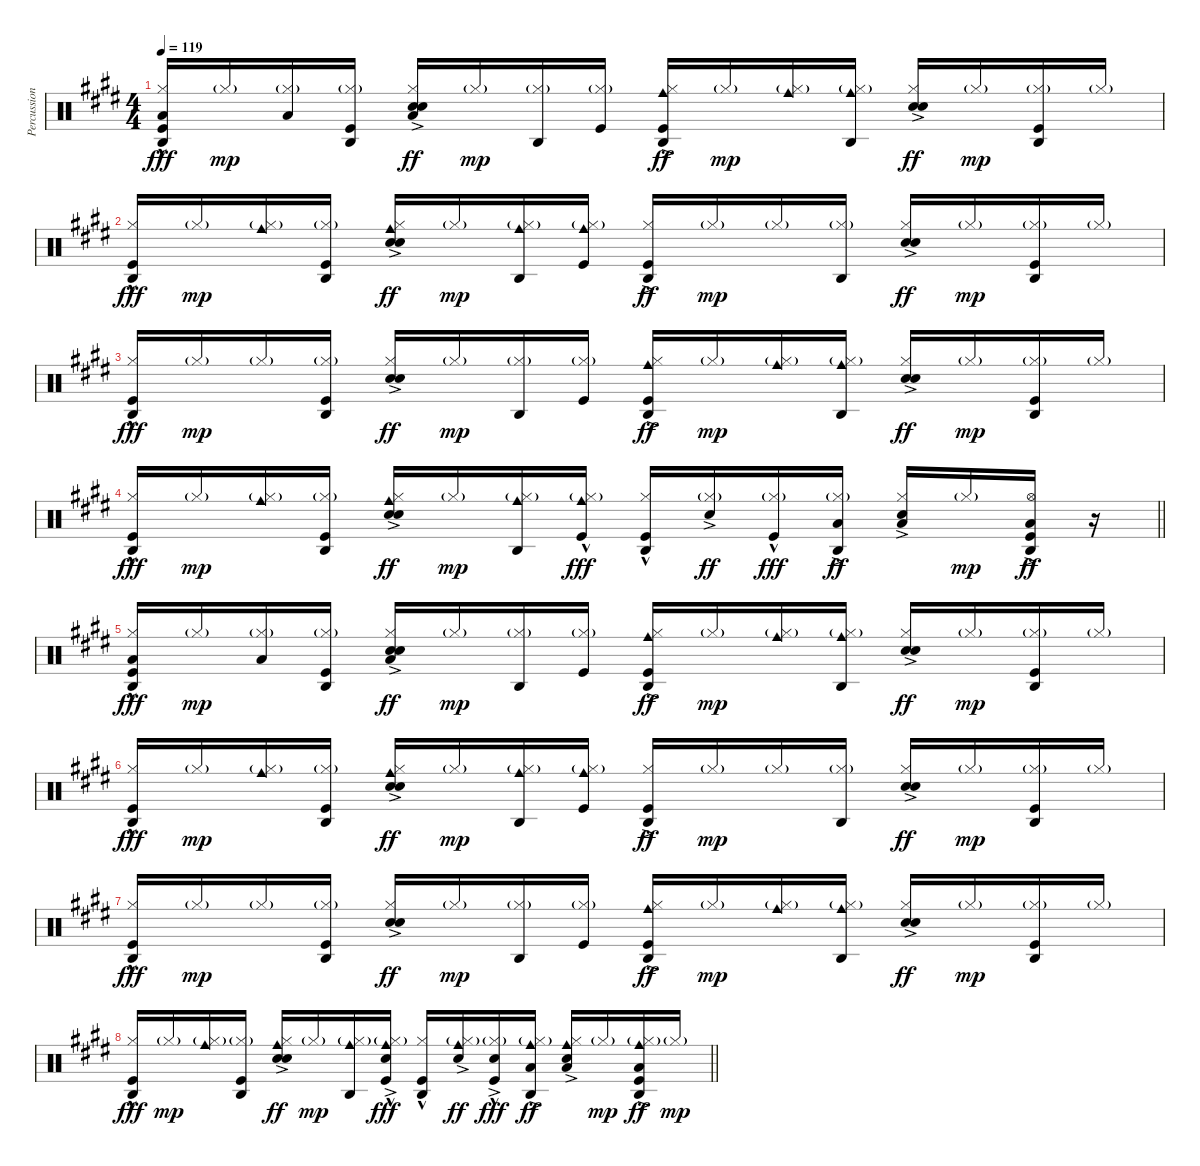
\track ("Percussion" "Percussion") {instrument percussion}
\staff {score}
\articulation defaults
\ts (4 4)
\tempo 119
\clef neutral
\ks e
("Agogo high (hit)" "Hi-Hat (closed)" "Low Tom (hit)" "Kick (hit)"{hac}).16{dy fff} "Hi-Hat (closed)"{g}.16{dy mp} ("Hi-Hat (closed)"{g} "Low Tom (hit)").16 ("Agogo high (hit)" "Hi-Hat (closed)"{g} "Kick (hit)").16 ("Hi-Hat (closed)" "Hand Clap (hit)"{ac} "Snare (hit) 2"{ac} "Low Tom (hit)").16{dy ff} "Hi-Hat (closed)"{g}.16{dy mp} ("Agogo high (hit)" "Hi-Hat (closed)"{g}).16 ("Hi-Hat (closed)"{g} "Kick (hit)").16 ("Agogo high (hit)" "Cowbell medium (hit)" "Hi-Hat (closed)" "Kick (hit)"{ac}).16{dy ff} "Hi-Hat (closed)"{g}.16{dy mp} ("Cowbell medium (hit)" "Hi-Hat (closed)"{g}).16 ("Agogo high (hit)" "Cowbell medium (hit)" "Hi-Hat (closed)"{g}).16 ("Hi-Hat (closed)" "Hand Clap (hit)"{ac} "Snare (hit) 2"{ac}).16{dy ff} "Hi-Hat (closed)"{g}.16{dy mp} ("Agogo high (hit)" "Hi-Hat (closed)"{g} "Kick (hit)").16 "Hi-Hat (closed)"{g}.16 |
("Agogo high (hit)" "Hi-Hat (closed)" "Kick (hit)"{hac}).16{dy fff} "Hi-Hat (closed)"{g}.16{dy mp} ("Cowbell medium (hit)" "Hi-Hat (closed)"{g}).16 ("Agogo high (hit)" "Hi-Hat (closed)"{g} "Kick (hit)").16 ("Cowbell medium (hit)" "Hi-Hat (closed)" "Hand Clap (hit)"{ac} "Snare (hit) 2"{ac}).16{dy ff} "Hi-Hat (closed)"{g}.16{dy mp} ("Agogo high (hit)" "Cowbell medium (hit)" "Hi-Hat (closed)"{g}).16 ("Cowbell medium (hit)" "Hi-Hat (closed)"{g} "Kick (hit)").16 ("Agogo high (hit)" "Hi-Hat (closed)" "Kick (hit)"{ac}).16{dy ff} "Hi-Hat (closed)"{g}.16{dy mp} "Hi-Hat (closed)"{g}.16 ("Agogo high (hit)" "Hi-Hat (closed)"{g}).16 ("Hi-Hat (closed)" "Hand Clap (hit)"{ac} "Snare (hit) 2"{ac}).16{dy ff} "Hi-Hat (closed)"{g}.16{dy mp} ("Agogo high (hit)" "Hi-Hat (closed)"{g} "Kick (hit)").16 "Hi-Hat (closed)"{g}.16 |
("Agogo high (hit)" "Hi-Hat (closed)" "Kick (hit)"{hac}).16{dy fff} "Hi-Hat (closed)"{g}.16{dy mp} "Hi-Hat (closed)"{g}.16 ("Agogo high (hit)" "Hi-Hat (closed)"{g} "Kick (hit)").16 ("Hi-Hat (closed)" "Hand Clap (hit)"{ac} "Snare (hit) 2"{ac}).16{dy ff} "Hi-Hat (closed)"{g}.16{dy mp} ("Agogo high (hit)" "Hi-Hat (closed)"{g}).16 ("Hi-Hat (closed)"{g} "Kick (hit)").16 ("Agogo high (hit)" "Cowbell medium (hit)" "Hi-Hat (closed)" "Kick (hit)"{ac}).16{dy ff} "Hi-Hat (closed)"{g}.16{dy mp} ("Cowbell medium (hit)" "Hi-Hat (closed)"{g}).16 ("Agogo high (hit)" "Cowbell medium (hit)" "Hi-Hat (closed)"{g}).16 ("Hi-Hat (closed)" "Hand Clap (hit)"{ac} "Snare (hit) 2"{ac}).16{dy ff} "Hi-Hat (closed)"{g}.16{dy mp} ("Agogo high (hit)" "Hi-Hat (closed)"{g} "Kick (hit)").16 "Hi-Hat (closed)"{g}.16 |
\barLineRight lightlight
("Agogo high (hit)" "Hi-Hat (closed)" "Kick (hit)"{hac}).16{dy fff} "Hi-Hat (closed)"{g}.16{dy mp} ("Cowbell medium (hit)" "Hi-Hat (closed)"{g}).16 ("Agogo high (hit)" "Hi-Hat (closed)"{g} "Kick (hit)").16 ("Cowbell medium (hit)" "Hi-Hat (closed)" "Hand Clap (hit)"{ac} "Snare (hit) 2"{ac}).16{dy ff} "Hi-Hat (closed)"{g}.16{dy mp} ("Agogo high (hit)" "Cowbell medium (hit)" "Hi-Hat (closed)"{g}).16 ("Cowbell medium (hit)" "Hi-Hat (closed)"{g} "Kick (hit)"{hac}).16{dy fff} ("Agogo high (hit)" "Hi-Hat (closed)" "Kick (hit)"{hac}).16 ("Hi-Hat (closed)"{g} "Hand Clap (hit)"{ac}).16{dy ff} ("Hi-Hat (closed)"{g} "Kick (hit)"{hac}).16{dy fff} ("Agogo high (hit)" "Hi-Hat (closed)"{g} "Low Tom (hit)"{ac}).16{dy ff} ("Hi-Hat (closed)" "Hand Clap (hit)"{ac} "Low Tom (hit)"{ac}).16 "Hi-Hat (closed)"{g}.16{dy mp} ("Agogo high (hit)" "Hi-Hat (open)" "Low Tom (hit)"{ac} "Kick (hit)").16{dy ff} r.16 |
("Agogo high (hit)" "Hi-Hat (closed)" "Low Tom (hit)" "Kick (hit)"{hac}).16{dy fff} "Hi-Hat (closed)"{g}.16{dy mp} ("Hi-Hat (closed)"{g} "Low Tom (hit)").16 ("Agogo high (hit)" "Hi-Hat (closed)"{g} "Kick (hit)").16 ("Hi-Hat (closed)" "Hand Clap (hit)"{ac} "Snare (hit) 2"{ac} "Low Tom (hit)").16{dy ff} "Hi-Hat (closed)"{g}.16{dy mp} ("Agogo high (hit)" "Hi-Hat (closed)"{g}).16 ("Hi-Hat (closed)"{g} "Kick (hit)").16 ("Agogo high (hit)" "Cowbell medium (hit)" "Hi-Hat (closed)" "Kick (hit)"{ac}).16{dy ff} "Hi-Hat (closed)"{g}.16{dy mp} ("Cowbell medium (hit)" "Hi-Hat (closed)"{g}).16 ("Agogo high (hit)" "Cowbell medium (hit)" "Hi-Hat (closed)"{g}).16 ("Hi-Hat (closed)" "Hand Clap (hit)"{ac} "Snare (hit) 2"{ac}).16{dy ff} "Hi-Hat (closed)"{g}.16{dy mp} ("Agogo high (hit)" "Hi-Hat (closed)"{g} "Kick (hit)").16 "Hi-Hat (closed)"{g}.16 |
("Agogo high (hit)" "Hi-Hat (closed)" "Kick (hit)"{hac}).16{dy fff} "Hi-Hat (closed)"{g}.16{dy mp} ("Cowbell medium (hit)" "Hi-Hat (closed)"{g}).16 ("Agogo high (hit)" "Hi-Hat (closed)"{g} "Kick (hit)").16 ("Cowbell medium (hit)" "Hi-Hat (closed)" "Hand Clap (hit)"{ac} "Snare (hit) 2"{ac}).16{dy ff} "Hi-Hat (closed)"{g}.16{dy mp} ("Agogo high (hit)" "Cowbell medium (hit)" "Hi-Hat (closed)"{g}).16 ("Cowbell medium (hit)" "Hi-Hat (closed)"{g} "Kick (hit)").16 ("Agogo high (hit)" "Hi-Hat (closed)" "Kick (hit)"{ac}).16{dy ff} "Hi-Hat (closed)"{g}.16{dy mp} "Hi-Hat (closed)"{g}.16 ("Agogo high (hit)" "Hi-Hat (closed)"{g}).16 ("Hi-Hat (closed)" "Hand Clap (hit)"{ac} "Snare (hit) 2"{ac}).16{dy ff} "Hi-Hat (closed)"{g}.16{dy mp} ("Agogo high (hit)" "Hi-Hat (closed)"{g} "Kick (hit)").16 "Hi-Hat (closed)"{g}.16 |
("Agogo high (hit)" "Hi-Hat (closed)" "Kick (hit)"{hac}).16{dy fff} "Hi-Hat (closed)"{g}.16{dy mp} "Hi-Hat (closed)"{g}.16 ("Agogo high (hit)" "Hi-Hat (closed)"{g} "Kick (hit)").16 ("Hi-Hat (closed)" "Hand Clap (hit)"{ac} "Snare (hit) 2"{ac}).16{dy ff} "Hi-Hat (closed)"{g}.16{dy mp} ("Agogo high (hit)" "Hi-Hat (closed)"{g}).16 ("Hi-Hat (closed)"{g} "Kick (hit)").16 ("Agogo high (hit)" "Cowbell medium (hit)" "Hi-Hat (closed)" "Kick (hit)"{ac}).16{dy ff} "Hi-Hat (closed)"{g}.16{dy mp} ("Cowbell medium (hit)" "Hi-Hat (closed)"{g}).16 ("Agogo high (hit)" "Cowbell medium (hit)" "Hi-Hat (closed)"{g}).16 ("Hi-Hat (closed)" "Hand Clap (hit)"{ac} "Snare (hit) 2"{ac}).16{dy ff} "Hi-Hat (closed)"{g}.16{dy mp} ("Agogo high (hit)" "Hi-Hat (closed)"{g} "Kick (hit)").16 "Hi-Hat (closed)"{g}.16 |
\barLineRight lightlight
("Agogo high (hit)" "Hi-Hat (closed)" "Kick (hit)"{hac}).16{dy fff} "Hi-Hat (closed)"{g}.16{dy mp} ("Cowbell medium (hit)" "Hi-Hat (closed)"{g}).16 ("Agogo high (hit)" "Hi-Hat (closed)"{g} "Kick (hit)").16 ("Cowbell medium (hit)" "Hi-Hat (closed)" "Hand Clap (hit)"{ac} "Snare (hit) 2"{ac}).16{dy ff} "Hi-Hat (closed)"{g}.16{dy mp} ("Agogo high (hit)" "Cowbell medium (hit)" "Hi-Hat (closed)"{g}).16 ("Cowbell medium (hit)" "Hi-Hat (closed)"{g} "Hand Clap (hit)"{ac} "Kick (hit)"{hac}).16{dy fff} ("Agogo high (hit)" "Hi-Hat (closed)" "Kick (hit)"{hac}).16 ("Cowbell medium (hit)" "Hi-Hat (closed)"{g} "Hand Clap (hit)"{ac}).16{dy ff} ("Hi-Hat (closed)"{g} "Hand Clap (hit)"{ac} "Kick (hit)"{hac}).16{dy fff} ("Agogo high (hit)" "Cowbell medium (hit)" "Hi-Hat (closed)"{g} "Low Tom (hit)"{ac}).16{dy ff} ("Cowbell medium (hit)" "Hi-Hat (closed)" "Hand Clap (hit)"{ac} "Low Tom (hit)"{ac}).16 "Hi-Hat (closed)"{g}.16{dy mp} ("Agogo high (hit)" "Cowbell medium (hit)" "Hi-Hat (closed)"{g} "Low Tom (hit)"{ac} "Kick (hit)").16{dy ff} "Hi-Hat (closed)"{g}.16{dy mp}
